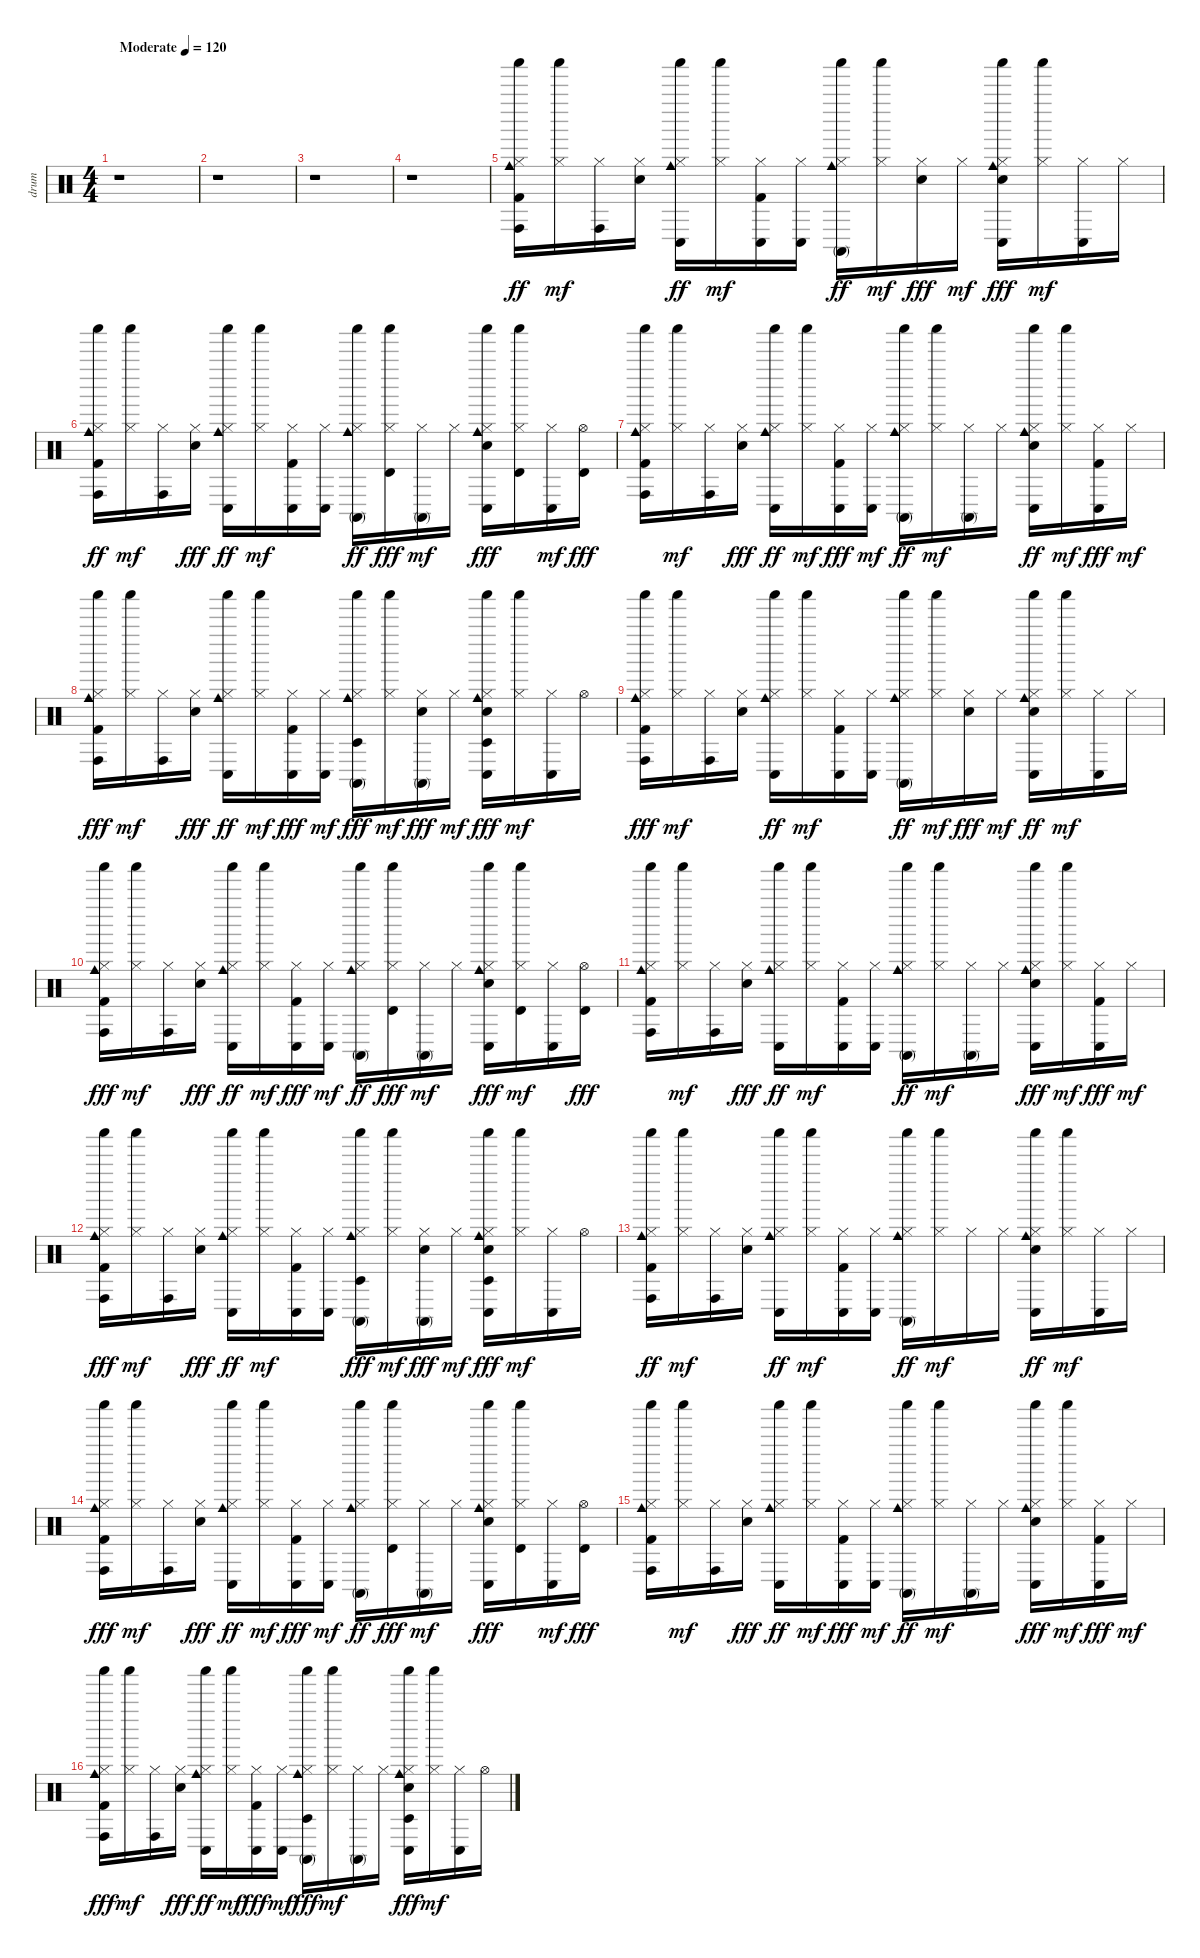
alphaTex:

\track ("drum" "drum") {instrument percussion}
\staff {score}
\articulation defaults
\ts (4 4)
\tempo (120 "Moderate")
\clef neutral
\ks c
r.1{dy ff} |
r.1 |
r.1 |
r.1 |
("Conga high (hit)" "Shaker (hit)" "Cowbell medium (hit)" "Kick (hit) 2" "Hi-Hat (closed)").16 ("Shaker (hit)" "Hi-Hat (closed)").16{dy mf} ("Conga high (hit)" "Hi-Hat (closed)").16 ("Electric Snare (hit)" "Hi-Hat (closed)").16 ("Conga low (hit)" "Cowbell medium (hit)" "Shaker (hit)" "Hi-Hat (closed)").16{dy ff} ("Shaker (hit)" "Hi-Hat (closed)").16{dy mf} ("Conga low (hit)" "Kick (hit) 2" "Hi-Hat (closed)").16 ("Conga low (hit)" "Hi-Hat (closed)").16 ("Conga high (mute)" "Cowbell medium (hit)" "Shaker (hit)" "Hi-Hat (closed)").16{dy ff} ("Shaker (hit)" "Hi-Hat (closed)").16{dy mf} ("Hi-Hat (closed)" "Electric Snare (hit)").16{dy fff} "Hi-Hat (closed)".16{dy mf} ("Conga low (hit)" "Shaker (hit)" "Cowbell medium (hit)" "Hi-Hat (closed)" "Electric Snare (hit)").16{dy fff} ("Shaker (hit)" "Hi-Hat (closed)").16{dy mf} ("Hi-Hat (closed)" "Conga low (hit)").16 "Hi-Hat (closed)".16 |
("Conga high (hit)" "Shaker (hit)" "Cowbell medium (hit)" "Kick (hit) 2" "Hi-Hat (closed)").16{dy ff} ("Hi-Hat (closed)" "Shaker (hit)").16{dy mf} ("Conga high (hit)" "Hi-Hat (closed)").16 ("Hi-Hat (closed)" "Electric Snare (hit)").16{dy fff} ("Conga low (hit)" "Cowbell medium (hit)" "Shaker (hit)" "Hi-Hat (closed)").16{dy ff} ("Shaker (hit)" "Hi-Hat (closed)").16{dy mf} ("Conga low (hit)" "Kick (hit) 2" "Hi-Hat (closed)").16 ("Conga low (hit)" "Hi-Hat (closed)").16 ("Conga high (mute)" "Cowbell medium (hit)" "Shaker (hit)" "Hi-Hat (closed)").16{dy ff} ("Shaker (hit)" "Hi-Hat (closed)" "Timbale high (hit)").16{dy fff} ("Conga high (mute)" "Hi-Hat (closed)").16{dy mf} "Hi-Hat (closed)".16 ("Conga low (hit)" "Cowbell medium (hit)" "Shaker (hit)" "Hi-Hat (closed)" "Electric Snare (hit)").16{dy fff} ("Shaker (hit)" "Hi-Hat (closed)" "Timbale high (hit)").16 ("Conga low (hit)" "Hi-Hat (closed)").16{dy mf} ("Hi-Hat (open)" "Timbale high (hit)").16{dy fff} |
("Conga high (hit)" "Shaker (hit)" "Cowbell medium (hit)" "Hi-Hat (closed)" "Kick (hit) 2").16 ("Shaker (hit)" "Hi-Hat (closed)").16{dy mf} ("Conga high (hit)" "Hi-Hat (closed)").16 ("Hi-Hat (closed)" "Electric Snare (hit)").16{dy fff} ("Conga low (hit)" "Cowbell medium (hit)" "Shaker (hit)" "Hi-Hat (closed)").16{dy ff} ("Shaker (hit)" "Hi-Hat (closed)").16{dy mf} ("Conga low (hit)" "Hi-Hat (closed)" "Kick (hit) 2").16{dy fff} ("Conga low (hit)" "Hi-Hat (closed)").16{dy mf} ("Conga high (mute)" "Cowbell medium (hit)" "Shaker (hit)" "Hi-Hat (closed)").16{dy ff} ("Hi-Hat (closed)" "Shaker (hit)").16{dy mf} ("Conga high (mute)" "Hi-Hat (closed)").16 "Hi-Hat (closed)".16 ("Conga low (hit)" "Cowbell medium (hit)" "Shaker (hit)" "Electric Snare (hit)" "Hi-Hat (closed)").16{dy ff} ("Shaker (hit)" "Hi-Hat (closed)").16{dy mf} ("Conga low (hit)" "Hi-Hat (closed)" "Kick (hit) 2").16{dy fff} "Hi-Hat (closed)".16{dy mf} |
("Conga high (hit)" "Cowbell medium (hit)" "Shaker (hit)" "Hi-Hat (closed)" "Kick (hit) 2").16{dy fff} ("Shaker (hit)" "Hi-Hat (closed)").16{dy mf} ("Conga high (hit)" "Hi-Hat (closed)").16 ("Hi-Hat (closed)" "Electric Snare (hit)").16{dy fff} ("Conga low (hit)" "Cowbell medium (hit)" "Shaker (hit)" "Hi-Hat (closed)").16{dy ff} ("Shaker (hit)" "Hi-Hat (closed)").16{dy mf} ("Conga low (hit)" "Hi-Hat (closed)" "Kick (hit) 2").16{dy fff} ("Conga low (hit)" "Hi-Hat (closed)").16{dy mf} ("Conga high (mute)" "Cowbell medium (hit)" "Shaker (hit)" "Hi-Hat (closed)" "Timbale low (hit)").16{dy fff} ("Shaker (hit)" "Hi-Hat (closed)").16{dy mf} ("Conga high (mute)" "Hi-Hat (closed)" "Electric Snare (hit)").16{dy fff} "Hi-Hat (closed)".16{dy mf} ("Conga low (hit)" "Hi-Hat (closed)" "Shaker (hit)" "Cowbell medium (hit)" "Electric Snare (hit)" "Timbale low (hit)").16{dy fff} ("Shaker (hit)" "Hi-Hat (closed)").16{dy mf} ("Conga low (hit)" "Hi-Hat (closed)").16 "Hi-Hat (open)".16 |
("Conga high (hit)" "Shaker (hit)" "Cowbell medium (hit)" "Hi-Hat (closed)" "Kick (hit) 2").16{dy fff} ("Shaker (hit)" "Hi-Hat (closed)").16{dy mf} ("Conga high (hit)" "Hi-Hat (closed)").16 ("Electric Snare (hit)" "Hi-Hat (closed)").16 ("Conga low (hit)" "Cowbell medium (hit)" "Shaker (hit)" "Hi-Hat (closed)").16{dy ff} ("Shaker (hit)" "Hi-Hat (closed)").16{dy mf} ("Conga low (hit)" "Kick (hit) 2" "Hi-Hat (closed)").16 ("Conga low (hit)" "Hi-Hat (closed)").16 ("Conga high (mute)" "Cowbell medium (hit)" "Shaker (hit)" "Hi-Hat (closed)").16{dy ff} ("Shaker (hit)" "Hi-Hat (closed)").16{dy mf} ("Hi-Hat (closed)" "Electric Snare (hit)").16{dy fff} "Hi-Hat (closed)".16{dy mf} ("Conga low (hit)" "Shaker (hit)" "Cowbell medium (hit)" "Electric Snare (hit)" "Hi-Hat (closed)").16{dy ff} ("Shaker (hit)" "Hi-Hat (closed)").16{dy mf} ("Conga low (hit)" "Hi-Hat (closed)").16 "Hi-Hat (closed)".16 |
("Conga high (hit)" "Shaker (hit)" "Cowbell medium (hit)" "Hi-Hat (closed)" "Kick (hit) 2").16{dy fff} ("Shaker (hit)" "Hi-Hat (closed)").16{dy mf} ("Conga high (hit)" "Hi-Hat (closed)").16 ("Hi-Hat (closed)" "Electric Snare (hit)").16{dy fff} ("Conga low (hit)" "Cowbell medium (hit)" "Shaker (hit)" "Hi-Hat (closed)").16{dy ff} ("Shaker (hit)" "Hi-Hat (closed)").16{dy mf} ("Conga low (hit)" "Hi-Hat (closed)" "Kick (hit) 2").16{dy fff} ("Conga low (hit)" "Hi-Hat (closed)").16{dy mf} ("Conga high (mute)" "Cowbell medium (hit)" "Shaker (hit)" "Hi-Hat (closed)").16{dy ff} ("Shaker (hit)" "Hi-Hat (closed)" "Timbale high (hit)").16{dy fff} ("Conga high (mute)" "Hi-Hat (closed)").16{dy mf} "Hi-Hat (closed)".16 ("Conga low (hit)" "Cowbell medium (hit)" "Shaker (hit)" "Hi-Hat (closed)" "Electric Snare (hit)").16{dy fff} ("Shaker (hit)" "Timbale high (hit)" "Hi-Hat (closed)").16{dy mf} ("Conga low (hit)" "Hi-Hat (closed)").16 ("Hi-Hat (open)" "Timbale high (hit)").16{dy fff} |
("Conga high (hit)" "Shaker (hit)" "Cowbell medium (hit)" "Hi-Hat (closed)" "Kick (hit) 2").16 ("Shaker (hit)" "Hi-Hat (closed)").16{dy mf} ("Conga high (hit)" "Hi-Hat (closed)").16 ("Hi-Hat (closed)" "Electric Snare (hit)").16{dy fff} ("Conga low (hit)" "Cowbell medium (hit)" "Shaker (hit)" "Hi-Hat (closed)").16{dy ff} ("Shaker (hit)" "Hi-Hat (closed)").16{dy mf} ("Conga low (hit)" "Kick (hit) 2" "Hi-Hat (closed)").16 ("Conga low (hit)" "Hi-Hat (closed)").16 ("Conga high (mute)" "Cowbell medium (hit)" "Shaker (hit)" "Hi-Hat (closed)").16{dy ff} ("Shaker (hit)" "Hi-Hat (closed)").16{dy mf} ("Conga high (mute)" "Hi-Hat (closed)").16 "Hi-Hat (closed)".16 ("Conga low (hit)" "Shaker (hit)" "Cowbell medium (hit)" "Hi-Hat (closed)" "Electric Snare (hit)").16{dy fff} ("Shaker (hit)" "Hi-Hat (closed)").16{dy mf} ("Conga low (hit)" "Hi-Hat (closed)" "Kick (hit) 2").16{dy fff} "Hi-Hat (closed)".16{dy mf} |
("Conga high (hit)" "Cowbell medium (hit)" "Shaker (hit)" "Hi-Hat (closed)" "Kick (hit) 2").16{dy fff} ("Shaker (hit)" "Hi-Hat (closed)").16{dy mf} ("Conga high (hit)" "Hi-Hat (closed)").16 ("Hi-Hat (closed)" "Electric Snare (hit)").16{dy fff} ("Conga low (hit)" "Cowbell medium (hit)" "Shaker (hit)" "Hi-Hat (closed)").16{dy ff} ("Shaker (hit)" "Hi-Hat (closed)").16{dy mf} ("Conga low (hit)" "Kick (hit) 2" "Hi-Hat (closed)").16 ("Conga low (hit)" "Hi-Hat (closed)").16 ("Conga high (mute)" "Cowbell medium (hit)" "Shaker (hit)" "Hi-Hat (closed)" "Timbale low (hit)").16{dy fff} ("Shaker (hit)" "Hi-Hat (closed)").16{dy mf} ("Conga high (mute)" "Hi-Hat (closed)" "Electric Snare (hit)").16{dy fff} "Hi-Hat (closed)".16{dy mf} ("Conga low (hit)" "Hi-Hat (closed)" "Shaker (hit)" "Cowbell medium (hit)" "Electric Snare (hit)" "Timbale low (hit)").16{dy fff} ("Shaker (hit)" "Hi-Hat (closed)").16{dy mf} ("Conga low (hit)" "Hi-Hat (closed)").16 "Hi-Hat (open)".16 |
("Conga high (hit)" "Shaker (hit)" "Cowbell medium (hit)" "Kick (hit) 2" "Hi-Hat (closed)").16{dy ff} ("Hi-Hat (closed)" "Shaker (hit)").16{dy mf} ("Conga high (hit)" "Hi-Hat (closed)").16 ("Electric Snare (hit)" "Hi-Hat (closed)").16 ("Cowbell medium (hit)" "Conga low (hit)" "Shaker (hit)" "Hi-Hat (closed)").16{dy ff} ("Shaker (hit)" "Hi-Hat (closed)").16{dy mf} ("Conga low (hit)" "Kick (hit) 2" "Hi-Hat (closed)").16 ("Conga low (hit)" "Hi-Hat (closed)").16 ("Conga high (mute)" "Cowbell medium (hit)" "Shaker (hit)" "Hi-Hat (closed)").16{dy ff} ("Shaker (hit)" "Hi-Hat (closed)").16{dy mf} "Hi-Hat (closed)".16 "Hi-Hat (closed)".16 ("Conga low (hit)" "Shaker (hit)" "Cowbell medium (hit)" "Electric Snare (hit)" "Hi-Hat (closed)").16{dy ff} ("Shaker (hit)" "Hi-Hat (closed)").16{dy mf} ("Conga low (hit)" "Hi-Hat (closed)").16 "Hi-Hat (closed)".16 |
("Conga high (hit)" "Shaker (hit)" "Cowbell medium (hit)" "Hi-Hat (closed)" "Kick (hit) 2").16{dy fff} ("Shaker (hit)" "Hi-Hat (closed)").16{dy mf} ("Conga high (hit)" "Hi-Hat (closed)").16 ("Hi-Hat (closed)" "Electric Snare (hit)").16{dy fff} ("Conga low (hit)" "Cowbell medium (hit)" "Shaker (hit)" "Hi-Hat (closed)").16{dy ff} ("Shaker (hit)" "Hi-Hat (closed)").16{dy mf} ("Conga low (hit)" "Hi-Hat (closed)" "Kick (hit) 2").16{dy fff} ("Conga low (hit)" "Hi-Hat (closed)").16{dy mf} ("Conga high (mute)" "Cowbell medium (hit)" "Shaker (hit)" "Hi-Hat (closed)").16{dy ff} ("Shaker (hit)" "Hi-Hat (closed)" "Timbale high (hit)").16{dy fff} ("Conga high (mute)" "Hi-Hat (closed)").16{dy mf} "Hi-Hat (closed)".16 ("Conga low (hit)" "Cowbell medium (hit)" "Shaker (hit)" "Hi-Hat (closed)" "Electric Snare (hit)").16{dy fff} ("Shaker (hit)" "Hi-Hat (closed)" "Timbale high (hit)").16 ("Conga low (hit)" "Hi-Hat (closed)").16{dy mf} ("Hi-Hat (open)" "Timbale high (hit)").16{dy fff} |
("Conga high (hit)" "Shaker (hit)" "Hi-Hat (closed)" "Cowbell medium (hit)" "Kick (hit) 2").16 ("Shaker (hit)" "Hi-Hat (closed)").16{dy mf} ("Conga high (hit)" "Hi-Hat (closed)").16 ("Hi-Hat (closed)" "Electric Snare (hit)").16{dy fff} ("Conga low (hit)" "Cowbell medium (hit)" "Shaker (hit)" "Hi-Hat (closed)").16{dy ff} ("Shaker (hit)" "Hi-Hat (closed)").16{dy mf} ("Conga low (hit)" "Hi-Hat (closed)" "Kick (hit) 2").16{dy fff} ("Conga low (hit)" "Hi-Hat (closed)").16{dy mf} ("Conga high (mute)" "Cowbell medium (hit)" "Shaker (hit)" "Hi-Hat (closed)").16{dy ff} ("Shaker (hit)" "Hi-Hat (closed)").16{dy mf} ("Conga high (mute)" "Hi-Hat (closed)").16 "Hi-Hat (closed)".16 ("Conga low (hit)" "Cowbell medium (hit)" "Shaker (hit)" "Hi-Hat (closed)" "Electric Snare (hit)").16{dy fff} ("Shaker (hit)" "Hi-Hat (closed)").16{dy mf} ("Conga low (hit)" "Hi-Hat (closed)" "Kick (hit) 2").16{dy fff} "Hi-Hat (closed)".16{dy mf} |
("Conga high (hit)" "Cowbell medium (hit)" "Shaker (hit)" "Hi-Hat (closed)" "Kick (hit) 2").16{dy fff} ("Shaker (hit)" "Hi-Hat (closed)").16{dy mf} ("Hi-Hat (closed)" "Conga high (hit)").16 ("Hi-Hat (closed)" "Electric Snare (hit)").16{dy fff} ("Conga low (hit)" "Cowbell medium (hit)" "Shaker (hit)" "Hi-Hat (closed)").16{dy ff} ("Shaker (hit)" "Hi-Hat (closed)").16{dy mf} ("Conga low (hit)" "Hi-Hat (closed)" "Kick (hit) 2").16{dy fff} ("Conga low (hit)" "Hi-Hat (closed)").16{dy mf} ("Conga high (mute)" "Shaker (hit)" "Cowbell medium (hit)" "Hi-Hat (closed)" "Timbale low (hit)").16{dy fff} ("Shaker (hit)" "Hi-Hat (closed)").16{dy mf} ("Conga high (mute)" "Hi-Hat (closed)").16 "Hi-Hat (closed)".16 ("Conga low (hit)" "Hi-Hat (closed)" "Shaker (hit)" "Cowbell medium (hit)" "Timbale low (hit)" "Electric Snare (hit)").16{dy fff} ("Shaker (hit)" "Hi-Hat (closed)").16{dy mf} ("Conga low (hit)" "Hi-Hat (closed)").16 "Hi-Hat (open)".16
